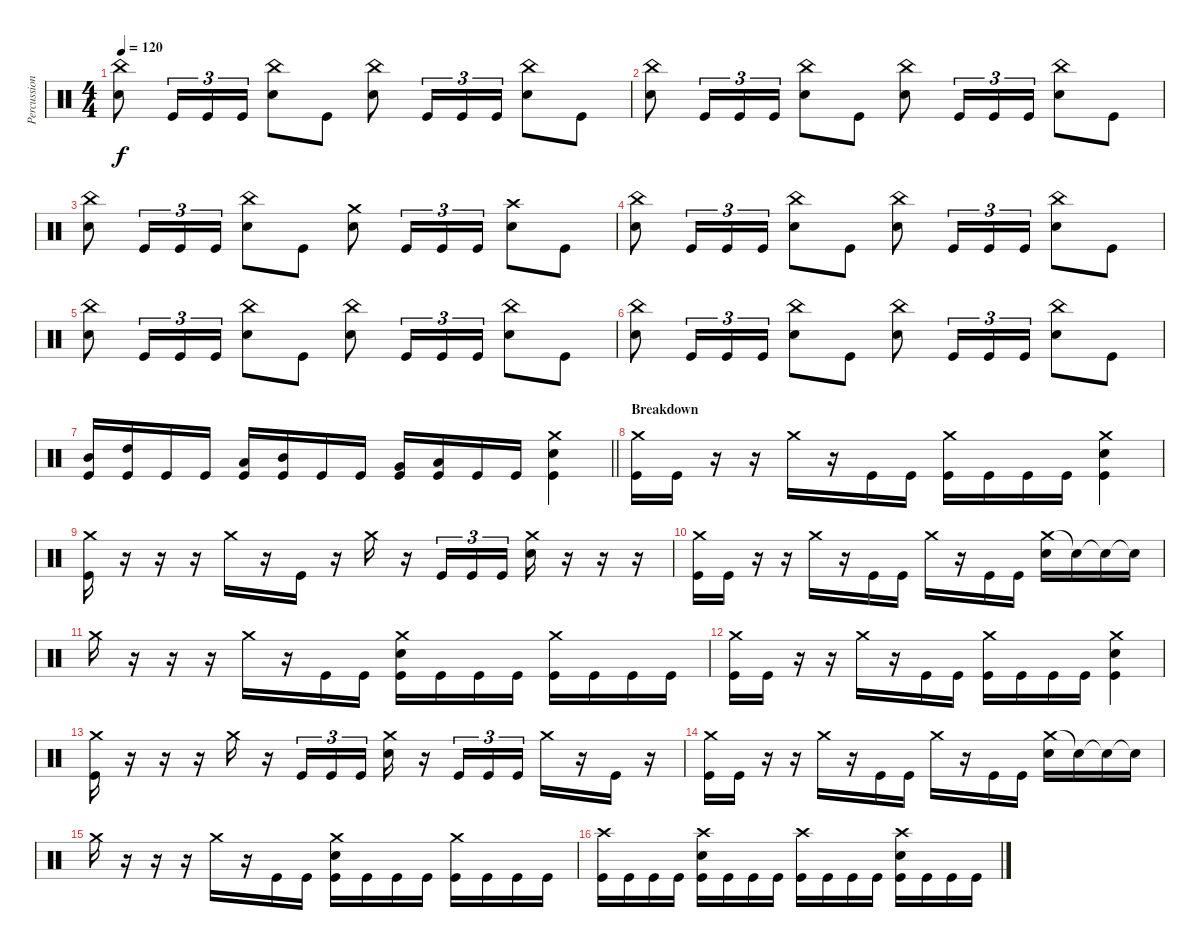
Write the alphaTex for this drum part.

\track ("Percussion" "Percussion") {instrument percussion}
\staff {score}
\articulation defaults
\ts (4 4)
\tempo 120
\clef neutral
\ks c
("China (hit)" "Snare (hit) 2").8{dy f} "Kick (hit)".16{tu (3 2)} "Kick (hit)".16{tu (3 2)} "Kick (hit)".16{tu (3 2)} ("China (hit)" "Snare (hit) 2").8 "Kick (hit)".8 ("China (hit)" "Snare (hit) 2").8 "Kick (hit)".16{tu (3 2)} "Kick (hit)".16{tu (3 2)} "Kick (hit)".16{tu (3 2)} ("China (hit)" "Snare (hit) 2").8 "Kick (hit)".8 |
("China (hit)" "Snare (hit) 2").8 "Kick (hit)".16{tu (3 2)} "Kick (hit)".16{tu (3 2)} "Kick (hit)".16{tu (3 2)} ("China (hit)" "Snare (hit) 2").8 "Kick (hit)".8 ("China (hit)" "Snare (hit) 2").8 "Kick (hit)".16{tu (3 2)} "Kick (hit)".16{tu (3 2)} "Kick (hit)".16{tu (3 2)} ("China (hit)" "Snare (hit) 2").8 "Kick (hit)".8 |
("China (hit)" "Snare (hit) 2").8 "Kick (hit)".16{tu (3 2)} "Kick (hit)".16{tu (3 2)} "Kick (hit)".16{tu (3 2)} ("China (hit)" "Snare (hit) 2").8 "Kick (hit)".8 ("Crash medium (hit)" "Snare (hit) 2").8 "Kick (hit)".16{tu (3 2)} "Kick (hit)".16{tu (3 2)} "Kick (hit)".16{tu (3 2)} ("Crash high (hit)" "Snare (hit) 2").8 "Kick (hit)".8 |
("China (hit)" "Snare (hit) 2").8 "Kick (hit)".16{tu (3 2)} "Kick (hit)".16{tu (3 2)} "Kick (hit)".16{tu (3 2)} ("China (hit)" "Snare (hit) 2").8 "Kick (hit)".8 ("China (hit)" "Snare (hit) 2").8 "Kick (hit)".16{tu (3 2)} "Kick (hit)".16{tu (3 2)} "Kick (hit)".16{tu (3 2)} ("China (hit)" "Snare (hit) 2").8 "Kick (hit)".8 |
("China (hit)" "Snare (hit) 2").8 "Kick (hit)".16{tu (3 2)} "Kick (hit)".16{tu (3 2)} "Kick (hit)".16{tu (3 2)} ("China (hit)" "Snare (hit) 2").8 "Kick (hit)".8 ("China (hit)" "Snare (hit) 2").8 "Kick (hit)".16{tu (3 2)} "Kick (hit)".16{tu (3 2)} "Kick (hit)".16{tu (3 2)} ("China (hit)" "Snare (hit) 2").8 "Kick (hit)".8 |
("China (hit)" "Snare (hit) 2").8 "Kick (hit)".16{tu (3 2)} "Kick (hit)".16{tu (3 2)} "Kick (hit)".16{tu (3 2)} ("China (hit)" "Snare (hit) 2").8 "Kick (hit)".8 ("China (hit)" "Snare (hit) 2").8 "Kick (hit)".16{tu (3 2)} "Kick (hit)".16{tu (3 2)} "Kick (hit)".16{tu (3 2)} ("China (hit)" "Snare (hit) 2").8 "Kick (hit)".8 |
\barLineRight lightlight
("Mid Tom (hit)" "Kick (hit)").16 ("High Tom (hit)" "Kick (hit)").16 "Kick (hit)".16 "Kick (hit)".16 ("Low Tom (hit)" "Kick (hit)").16 ("Mid Tom (hit)" "Kick (hit)").16 "Kick (hit)".16 "Kick (hit)".16 ("Very Low Tom (hit)" "Kick (hit)").16 ("Low Tom (hit)" "Kick (hit)").16 "Kick (hit)".16 "Kick (hit)".16 ("Crash medium (hit)" "Snare (hit) 2" "Kick (hit)").4 |
\section ("" "Breakdown")
("Crash medium (hit)" "Kick (hit)").16 "Kick (hit)".16 r.16 r.16 "Crash medium (hit)".16 r.16 "Kick (hit)".16 "Kick (hit)".16 ("Crash medium (hit)" "Kick (hit)").16 "Kick (hit)".16 "Kick (hit)".16 "Kick (hit)".16 ("Crash medium (hit)" "Snare (hit) 2" "Kick (hit)").4 |
("Crash medium (hit)" "Kick (hit)").16 r.16 r.16 r.16 "Crash medium (hit)".16 r.16 "Kick (hit)".16 r.16 "Crash medium (hit)".16 r.16 "Kick (hit)".16{tu (3 2)} "Kick (hit)".16{tu (3 2)} "Kick (hit)".16{tu (3 2)} ("Crash medium (hit)" "Snare (hit) 2").16 r.16 r.16 r.16 |
("Crash medium (hit)" "Kick (hit)").16 "Kick (hit)".16 r.16 r.16 "Crash medium (hit)".16 r.16 "Kick (hit)".16 "Kick (hit)".16 "Crash medium (hit)".16 r.16 "Kick (hit)".16 "Kick (hit)".16 ("Crash medium (hit)" "Snare (hit) 2").16 "Snare (hit)"{t}.16 "Snare (hit)"{t}.16 "Snare (hit)"{t}.16 |
"Crash medium (hit)".16 r.16 r.16 r.16 "Crash medium (hit)".16 r.16 "Kick (hit)".16 "Kick (hit)".16 ("Crash medium (hit)" "Snare (hit) 2" "Kick (hit)").16 "Kick (hit)".16 "Kick (hit)".16 "Kick (hit)".16 ("Crash medium (hit)" "Kick (hit)").16 "Kick (hit)".16 "Kick (hit)".16 "Kick (hit)".16 |
("Crash medium (hit)" "Kick (hit)").16 "Kick (hit)".16 r.16 r.16 "Crash medium (hit)".16 r.16 "Kick (hit)".16 "Kick (hit)".16 ("Crash medium (hit)" "Kick (hit)").16 "Kick (hit)".16 "Kick (hit)".16 "Kick (hit)".16 ("Crash medium (hit)" "Snare (hit) 2" "Kick (hit)").4 |
("Crash medium (hit)" "Kick (hit)").16 r.16 r.16 r.16 "Crash medium (hit)".16 r.16 "Kick (hit)".16{tu (3 2)} "Kick (hit)".16{tu (3 2)} "Kick (hit)".16{tu (3 2)} ("Crash medium (hit)" "Snare (hit) 2").16 r.16 "Kick (hit)".16{tu (3 2)} "Kick (hit)".16{tu (3 2)} "Kick (hit)".16{tu (3 2)} "Crash medium (hit)".16 r.16 "Kick (hit)".16 r.16 |
("Crash medium (hit)" "Kick (hit)").16 "Kick (hit)".16 r.16 r.16 "Crash medium (hit)".16 r.16 "Kick (hit)".16 "Kick (hit)".16 "Crash medium (hit)".16 r.16 "Kick (hit)".16 "Kick (hit)".16 ("Crash medium (hit)" "Snare (hit) 2").16 "Snare (hit)"{t}.16 "Snare (hit)"{t}.16 "Snare (hit)"{t}.16 |
"Crash medium (hit)".16 r.16 r.16 r.16 "Crash medium (hit)".16 r.16 "Kick (hit)".16 "Kick (hit)".16 ("Crash medium (hit)" "Snare (hit) 2" "Kick (hit)").16 "Kick (hit)".16 "Kick (hit)".16 "Kick (hit)".16 ("Crash medium (hit)" "Kick (hit)").16 "Kick (hit)".16 "Kick (hit)".16 "Kick (hit)".16 |
("Crash high (hit)" "Kick (hit)").16 "Kick (hit)".16 "Kick (hit)".16 "Kick (hit)".16 ("Crash high (hit)" "Snare (hit) 2" "Kick (hit)").16 "Kick (hit)".16 "Kick (hit)".16 "Kick (hit)".16 ("Crash high (hit)" "Kick (hit)").16 "Kick (hit)".16 "Kick (hit)".16 "Kick (hit)".16 ("Crash high (hit)" "Snare (hit) 2" "Kick (hit)").16 "Kick (hit)".16 "Kick (hit)".16 "Kick (hit)".16
